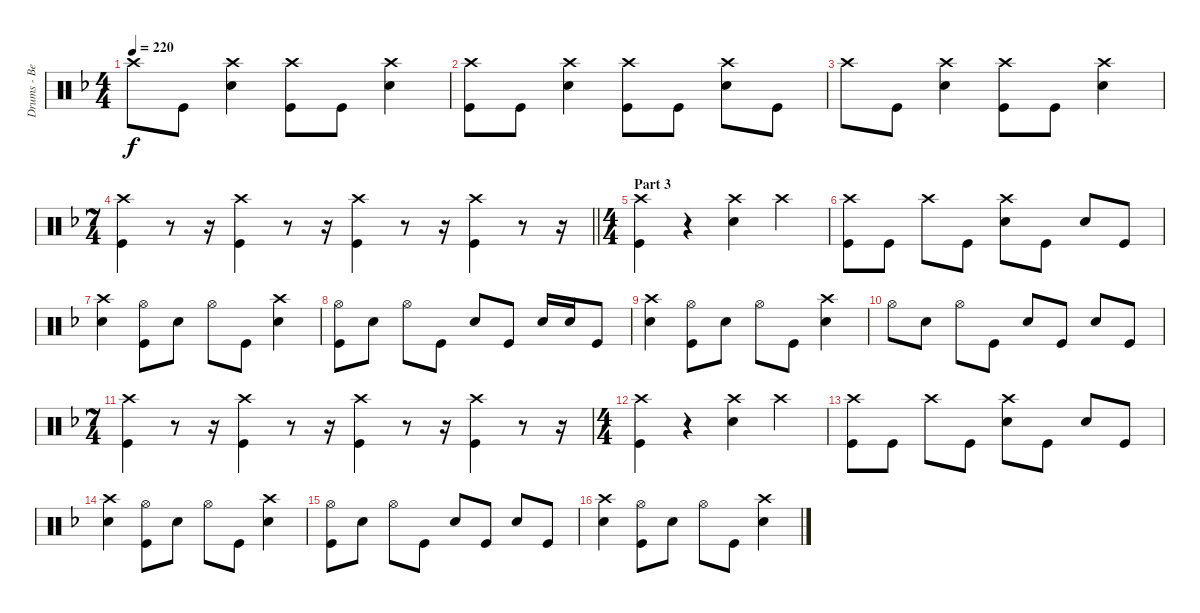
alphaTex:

\track ("Drums - Ben Johnston" "Drums - Be") {instrument percussion}
\staff {score}
\articulation defaults
\ts (4 4)
\tempo 220
\clef neutral
\ks dminor "Crash high (hit)".8{dy f} "Kick (hit)".8
("Crash high (hit)" "Snare (hit) 2").4 ("Crash high (hit)" "Kick (hit)").8 "Kick (hit)".8 ("Crash high (hit)" "Snare (hit) 2").4 |
("Crash high (hit)" "Kick (hit)").8 "Kick (hit)".8 ("Crash high (hit)" "Snare (hit) 2").4 ("Crash high (hit)" "Kick (hit)").8 "Kick (hit)".8 ("Crash high (hit)" "Snare (hit) 2").8 "Kick (hit)".8 |
"Crash high (hit)".8 "Kick (hit)".8 ("Crash high (hit)" "Snare (hit) 2").4 ("Crash high (hit)" "Kick (hit)").8 "Kick (hit)".8 ("Crash high (hit)" "Snare (hit) 2").4 |
\ts (7 4)
\barLineRight lightlight
("Crash high (hit)" "Kick (hit)").4 r.8 r.16 ("Crash high (hit)" "Kick (hit)").4 r.8 r.16 ("Crash high (hit)" "Kick (hit)").4 r.8 r.16 ("Crash high (hit)" "Kick (hit)").4 r.8 r.16 |
\ts (4 4)
\section ("" "Part 3")
("Crash high (hit)" "Kick (hit)").4 r.4 ("Crash high (hit)" "Snare (hit) 2").4 "Crash high (hit)".4 |
("Crash high (hit)" "Kick (hit)").8 "Kick (hit)".8 "Crash high (hit)".8 "Kick (hit)".8 ("Crash high (hit)" "Snare (hit) 2").8 "Kick (hit)".8 "Snare (hit) 2".8 "Kick (hit)".8 |
("Crash high (hit)" "Snare (hit) 2").4 ("Hi-Hat (open)" "Kick (hit)").8 "Snare (hit) 2".8 "Hi-Hat (open)".8 "Kick (hit)".8 ("Crash high (hit)" "Snare (hit) 2").4 |
("Hi-Hat (open)" "Kick (hit)").8 "Snare (hit) 2".8 "Hi-Hat (open)".8 "Kick (hit)".8 "Snare (hit) 2".8 "Kick (hit)".8 "Snare (hit) 2".16 "Snare (hit) 2".16 "Kick (hit)".8 |
("Crash high (hit)" "Snare (hit) 2").4 ("Hi-Hat (open)" "Kick (hit)").8 "Snare (hit) 2".8 "Hi-Hat (open)".8 "Kick (hit)".8 ("Crash high (hit)" "Snare (hit) 2").4 |
"Hi-Hat (open)".8 "Snare (hit) 2".8 "Hi-Hat (open)".8 "Kick (hit)".8 "Snare (hit) 2".8 "Kick (hit)".8 "Snare (hit) 2".8 "Kick (hit)".8 |
\ts (7 4)
("Crash high (hit)" "Kick (hit)").4 r.8 r.16 ("Crash high (hit)" "Kick (hit)").4 r.8 r.16 ("Crash high (hit)" "Kick (hit)").4 r.8 r.16 ("Crash high (hit)" "Kick (hit)").4 r.8 r.16 |
\ts (4 4)
("Crash high (hit)" "Kick (hit)").4 r.4 ("Crash high (hit)" "Snare (hit) 2").4 "Crash high (hit)".4 |
("Crash high (hit)" "Kick (hit)").8 "Kick (hit)".8 "Crash high (hit)".8 "Kick (hit)".8 ("Crash high (hit)" "Snare (hit) 2").8 "Kick (hit)".8 "Snare (hit) 2".8 "Kick (hit)".8 |
("Crash high (hit)" "Snare (hit) 2").4 ("Hi-Hat (open)" "Kick (hit)").8 "Snare (hit) 2".8 "Hi-Hat (open)".8 "Kick (hit)".8 ("Crash high (hit)" "Snare (hit) 2").4 |
("Hi-Hat (open)" "Kick (hit)").8 "Snare (hit) 2".8 "Hi-Hat (open)".8 "Kick (hit)".8 "Snare (hit) 2".8 "Kick (hit)".8 "Snare (hit) 2".8 "Kick (hit)".8 |
("Crash high (hit)" "Snare (hit) 2").4 ("Hi-Hat (open)" "Kick (hit)").8 "Snare (hit) 2".8 "Hi-Hat (open)".8 "Kick (hit)".8 ("Crash high (hit)" "Snare (hit) 2").4
